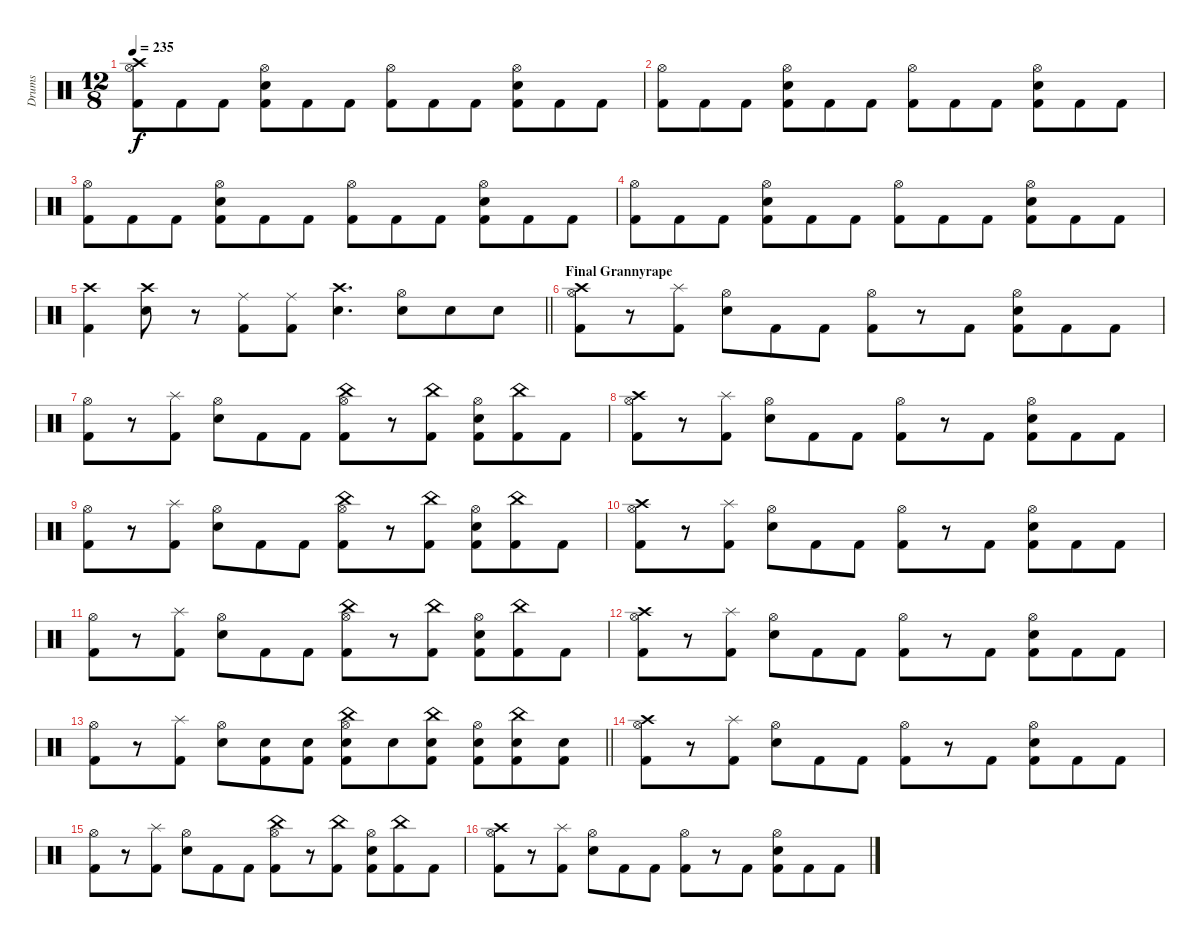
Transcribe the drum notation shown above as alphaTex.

\track ("Drums" "Drums") {instrument percussion}
\staff {score}
\articulation defaults
\ts (12 8)
\tempo 235
\clef neutral
\ks c
("Crash high (hit)" "Hi-Hat (open)" "Kick (hit) 2").8{dy f} "Kick (hit) 2".8 "Kick (hit) 2".8 ("Hi-Hat (open)" "Snare (hit) 2" "Kick (hit) 2").8 "Kick (hit) 2".8 "Kick (hit) 2".8 ("Hi-Hat (open)" "Kick (hit) 2").8 "Kick (hit) 2".8 "Kick (hit) 2".8 ("Hi-Hat (open)" "Snare (hit) 2" "Kick (hit) 2").8 "Kick (hit) 2".8 "Kick (hit) 2".8 |
("Hi-Hat (open)" "Kick (hit) 2").8 "Kick (hit) 2".8 "Kick (hit) 2".8 ("Hi-Hat (open)" "Snare (hit) 2" "Kick (hit) 2").8 "Kick (hit) 2".8 "Kick (hit) 2".8 ("Hi-Hat (open)" "Kick (hit) 2").8 "Kick (hit) 2".8 "Kick (hit) 2".8 ("Hi-Hat (open)" "Snare (hit) 2" "Kick (hit) 2").8 "Kick (hit) 2".8 "Kick (hit) 2".8 |
("Hi-Hat (open)" "Kick (hit) 2").8 "Kick (hit) 2".8 "Kick (hit) 2".8 ("Hi-Hat (open)" "Snare (hit) 2" "Kick (hit) 2").8 "Kick (hit) 2".8 "Kick (hit) 2".8 ("Hi-Hat (open)" "Kick (hit) 2").8 "Kick (hit) 2".8 "Kick (hit) 2".8 ("Hi-Hat (open)" "Snare (hit) 2" "Kick (hit) 2").8 "Kick (hit) 2".8 "Kick (hit) 2".8 |
("Hi-Hat (open)" "Kick (hit) 2").8 "Kick (hit) 2".8 "Kick (hit) 2".8 ("Hi-Hat (open)" "Snare (hit) 2" "Kick (hit) 2").8 "Kick (hit) 2".8 "Kick (hit) 2".8 ("Hi-Hat (open)" "Kick (hit) 2").8 "Kick (hit) 2".8 "Kick (hit) 2".8 ("Hi-Hat (open)" "Snare (hit) 2" "Kick (hit) 2").8 "Kick (hit) 2".8 "Kick (hit) 2".8 |
\barLineRight lightlight
("Crash high (hit)" "Kick (hit) 2").4 ("Crash high (hit)" "Snare (hit) 2").8 r.8 ("Ride (middle)" "Kick (hit) 2").8 ("Ride (middle)" "Kick (hit) 2").8 ("Crash high (hit)" "Snare (hit) 2").4{d} ("Hi-Hat (open)" "Snare (hit) 2").8 "Snare (hit) 2".8 "Snare (hit) 2".8 |
\section ("" "Final Grannyrape")
("Crash high (hit)" "Hi-Hat (open)" "Kick (hit) 2").8 r.8 ("Splash (hit)" "Kick (hit) 2").8 ("Hi-Hat (open)" "Snare (hit) 2").8 "Kick (hit) 2".8 "Kick (hit) 2".8 ("Hi-Hat (open)" "Kick (hit) 2").8 r.8 "Kick (hit) 2".8 ("Hi-Hat (open)" "Snare (hit) 2" "Kick (hit) 2").8 "Kick (hit) 2".8 "Kick (hit) 2".8 |
("Hi-Hat (open)" "Kick (hit) 2").8 r.8 ("Splash (hit)" "Kick (hit) 2").8 ("Hi-Hat (open)" "Snare (hit) 2").8 "Kick (hit) 2".8 "Kick (hit) 2".8 ("China (hit)" "Hi-Hat (open)" "Kick (hit) 2").8 r.8 ("China (hit)" "Kick (hit) 2").8 ("Hi-Hat (open)" "Snare (hit) 2" "Kick (hit) 2").8 ("China (hit)" "Kick (hit) 2").8 "Kick (hit) 2".8 |
("Crash high (hit)" "Hi-Hat (open)" "Kick (hit) 2").8 r.8 ("Splash (hit)" "Kick (hit) 2").8 ("Hi-Hat (open)" "Snare (hit) 2").8 "Kick (hit) 2".8 "Kick (hit) 2".8 ("Hi-Hat (open)" "Kick (hit) 2").8 r.8 "Kick (hit) 2".8 ("Hi-Hat (open)" "Snare (hit) 2" "Kick (hit) 2").8 "Kick (hit) 2".8 "Kick (hit) 2".8 |
("Hi-Hat (open)" "Kick (hit) 2").8 r.8 ("Splash (hit)" "Kick (hit) 2").8 ("Hi-Hat (open)" "Snare (hit) 2").8 "Kick (hit) 2".8 "Kick (hit) 2".8 ("China (hit)" "Hi-Hat (open)" "Kick (hit) 2").8 r.8 ("China (hit)" "Kick (hit) 2").8 ("Hi-Hat (open)" "Snare (hit) 2" "Kick (hit) 2").8 ("China (hit)" "Kick (hit) 2").8 "Kick (hit) 2".8 |
("Crash high (hit)" "Hi-Hat (open)" "Kick (hit) 2").8 r.8 ("Splash (hit)" "Kick (hit) 2").8 ("Hi-Hat (open)" "Snare (hit) 2").8 "Kick (hit) 2".8 "Kick (hit) 2".8 ("Hi-Hat (open)" "Kick (hit) 2").8 r.8 "Kick (hit) 2".8 ("Hi-Hat (open)" "Snare (hit) 2" "Kick (hit) 2").8 "Kick (hit) 2".8 "Kick (hit) 2".8 |
("Hi-Hat (open)" "Kick (hit) 2").8 r.8 ("Splash (hit)" "Kick (hit) 2").8 ("Hi-Hat (open)" "Snare (hit) 2").8 "Kick (hit) 2".8 "Kick (hit) 2".8 ("China (hit)" "Hi-Hat (open)" "Kick (hit) 2").8 r.8 ("China (hit)" "Kick (hit) 2").8 ("Hi-Hat (open)" "Snare (hit) 2" "Kick (hit) 2").8 ("China (hit)" "Kick (hit) 2").8 "Kick (hit) 2".8 |
("Crash high (hit)" "Hi-Hat (open)" "Kick (hit) 2").8 r.8 ("Splash (hit)" "Kick (hit) 2").8 ("Hi-Hat (open)" "Snare (hit) 2").8 "Kick (hit) 2".8 "Kick (hit) 2".8 ("Hi-Hat (open)" "Kick (hit) 2").8 r.8 "Kick (hit) 2".8 ("Hi-Hat (open)" "Snare (hit) 2" "Kick (hit) 2").8 "Kick (hit) 2".8 "Kick (hit) 2".8 |
\barLineRight lightlight
("Hi-Hat (open)" "Kick (hit) 2").8 r.8 ("Splash (hit)" "Kick (hit) 2").8 ("Hi-Hat (open)" "Snare (hit) 2").8 ("Snare (hit) 2" "Kick (hit) 2").8 ("Snare (hit) 2" "Kick (hit) 2").8 ("China (hit)" "Hi-Hat (open)" "Snare (hit) 2" "Kick (hit) 2").8 "Snare (hit) 2".8 ("China (hit)" "Snare (hit) 2" "Kick (hit) 2").8 ("Hi-Hat (open)" "Snare (hit) 2" "Kick (hit) 2").8 ("China (hit)" "Snare (hit) 2" "Kick (hit) 2").8 ("Snare (hit) 2" "Kick (hit) 2").8 |
("Crash high (hit)" "Hi-Hat (open)" "Kick (hit) 2").8 r.8 ("Splash (hit)" "Kick (hit) 2").8 ("Hi-Hat (open)" "Snare (hit) 2").8 "Kick (hit) 2".8 "Kick (hit) 2".8 ("Hi-Hat (open)" "Kick (hit) 2").8 r.8 "Kick (hit) 2".8 ("Hi-Hat (open)" "Snare (hit) 2" "Kick (hit) 2").8 "Kick (hit) 2".8 "Kick (hit) 2".8 |
("Hi-Hat (open)" "Kick (hit) 2").8 r.8 ("Splash (hit)" "Kick (hit) 2").8 ("Hi-Hat (open)" "Snare (hit) 2").8 "Kick (hit) 2".8 "Kick (hit) 2".8 ("China (hit)" "Hi-Hat (open)" "Kick (hit) 2").8 r.8 ("China (hit)" "Kick (hit) 2").8 ("Hi-Hat (open)" "Snare (hit) 2" "Kick (hit) 2").8 ("China (hit)" "Kick (hit) 2").8 "Kick (hit) 2".8 |
("Crash high (hit)" "Hi-Hat (open)" "Kick (hit) 2").8 r.8 ("Splash (hit)" "Kick (hit) 2").8 ("Hi-Hat (open)" "Snare (hit) 2").8 "Kick (hit) 2".8 "Kick (hit) 2".8 ("Hi-Hat (open)" "Kick (hit) 2").8 r.8 "Kick (hit) 2".8 ("Hi-Hat (open)" "Snare (hit) 2" "Kick (hit) 2").8 "Kick (hit) 2".8 "Kick (hit) 2".8
